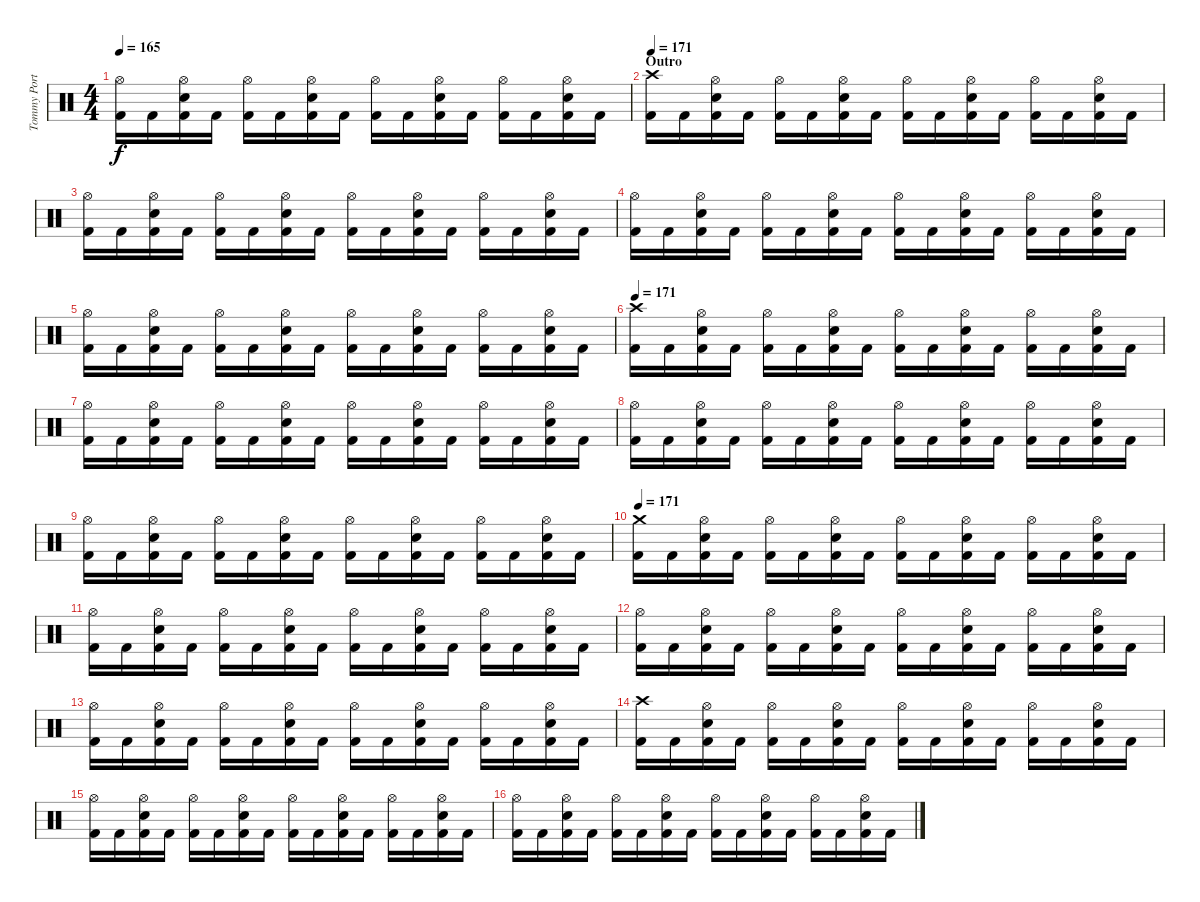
\track ("Tommy Portimo" "Tommy Port") {instrument percussion}
\staff {score}
\articulation defaults
\ts (4 4)
\tempo 165
\clef neutral
\ks c
("Hi-Hat (open)" "Kick (hit) 2").16{dy f} "Kick (hit) 2".16 ("Hi-Hat (open)" "Snare (hit) 2" "Kick (hit) 2").16 "Kick (hit) 2".16 ("Hi-Hat (open)" "Kick (hit) 2").16 "Kick (hit) 2".16 ("Hi-Hat (open)" "Snare (hit) 2" "Kick (hit) 2").16 "Kick (hit) 2".16 ("Hi-Hat (open)" "Kick (hit) 2").16 "Kick (hit) 2".16 ("Hi-Hat (open)" "Snare (hit) 2" "Kick (hit) 2").16 "Kick (hit) 2".16 ("Hi-Hat (open)" "Kick (hit) 2").16 "Kick (hit) 2".16 ("Hi-Hat (open)" "Snare (hit) 2" "Kick (hit) 2").16 "Kick (hit) 2".16 |
\section ("" "Outro")
\tempo 171
("Crash high (hit)" "Kick (hit) 2").16 "Kick (hit) 2".16 ("Hi-Hat (open)" "Snare (hit) 2" "Kick (hit) 2").16 "Kick (hit) 2".16 ("Hi-Hat (open)" "Kick (hit) 2").16 "Kick (hit) 2".16 ("Hi-Hat (open)" "Snare (hit) 2" "Kick (hit) 2").16 "Kick (hit) 2".16 ("Hi-Hat (open)" "Kick (hit) 2").16 "Kick (hit) 2".16 ("Hi-Hat (open)" "Snare (hit) 2" "Kick (hit) 2").16 "Kick (hit) 2".16 ("Hi-Hat (open)" "Kick (hit) 2").16 "Kick (hit) 2".16 ("Hi-Hat (open)" "Snare (hit) 2" "Kick (hit) 2").16 "Kick (hit) 2".16 |
("Hi-Hat (open)" "Kick (hit) 2").16 "Kick (hit) 2".16 ("Hi-Hat (open)" "Snare (hit) 2" "Kick (hit) 2").16 "Kick (hit) 2".16 ("Hi-Hat (open)" "Kick (hit) 2").16 "Kick (hit) 2".16 ("Hi-Hat (open)" "Snare (hit) 2" "Kick (hit) 2").16 "Kick (hit) 2".16 ("Hi-Hat (open)" "Kick (hit) 2").16 "Kick (hit) 2".16 ("Hi-Hat (open)" "Snare (hit) 2" "Kick (hit) 2").16 "Kick (hit) 2".16 ("Hi-Hat (open)" "Kick (hit) 2").16 "Kick (hit) 2".16 ("Hi-Hat (open)" "Snare (hit) 2" "Kick (hit) 2").16 "Kick (hit) 2".16 |
("Hi-Hat (open)" "Kick (hit) 2").16 "Kick (hit) 2".16 ("Hi-Hat (open)" "Snare (hit) 2" "Kick (hit) 2").16 "Kick (hit) 2".16 ("Hi-Hat (open)" "Kick (hit) 2").16 "Kick (hit) 2".16 ("Hi-Hat (open)" "Snare (hit) 2" "Kick (hit) 2").16 "Kick (hit) 2".16 ("Hi-Hat (open)" "Kick (hit) 2").16 "Kick (hit) 2".16 ("Hi-Hat (open)" "Snare (hit) 2" "Kick (hit) 2").16 "Kick (hit) 2".16 ("Hi-Hat (open)" "Kick (hit) 2").16 "Kick (hit) 2".16 ("Hi-Hat (open)" "Snare (hit) 2" "Kick (hit) 2").16 "Kick (hit) 2".16 |
("Hi-Hat (open)" "Kick (hit) 2").16 "Kick (hit) 2".16 ("Hi-Hat (open)" "Snare (hit) 2" "Kick (hit) 2").16 "Kick (hit) 2".16 ("Hi-Hat (open)" "Kick (hit) 2").16 "Kick (hit) 2".16 ("Hi-Hat (open)" "Snare (hit) 2" "Kick (hit) 2").16 "Kick (hit) 2".16 ("Hi-Hat (open)" "Kick (hit) 2").16 "Kick (hit) 2".16 ("Hi-Hat (open)" "Snare (hit) 2" "Kick (hit) 2").16 "Kick (hit) 2".16 ("Hi-Hat (open)" "Kick (hit) 2").16 "Kick (hit) 2".16 ("Hi-Hat (open)" "Snare (hit) 2" "Kick (hit) 2").16 "Kick (hit) 2".16 |
\tempo 171
("Crash high (hit)" "Kick (hit) 2").16 "Kick (hit) 2".16 ("Hi-Hat (open)" "Snare (hit) 2" "Kick (hit) 2").16 "Kick (hit) 2".16 ("Hi-Hat (open)" "Kick (hit) 2").16 "Kick (hit) 2".16 ("Hi-Hat (open)" "Snare (hit) 2" "Kick (hit) 2").16 "Kick (hit) 2".16 ("Hi-Hat (open)" "Kick (hit) 2").16 "Kick (hit) 2".16 ("Hi-Hat (open)" "Snare (hit) 2" "Kick (hit) 2").16 "Kick (hit) 2".16 ("Hi-Hat (open)" "Kick (hit) 2").16 "Kick (hit) 2".16 ("Hi-Hat (open)" "Snare (hit) 2" "Kick (hit) 2").16 "Kick (hit) 2".16 |
("Hi-Hat (open)" "Kick (hit) 2").16 "Kick (hit) 2".16 ("Hi-Hat (open)" "Snare (hit) 2" "Kick (hit) 2").16 "Kick (hit) 2".16 ("Hi-Hat (open)" "Kick (hit) 2").16 "Kick (hit) 2".16 ("Hi-Hat (open)" "Snare (hit) 2" "Kick (hit) 2").16 "Kick (hit) 2".16 ("Hi-Hat (open)" "Kick (hit) 2").16 "Kick (hit) 2".16 ("Hi-Hat (open)" "Snare (hit) 2" "Kick (hit) 2").16 "Kick (hit) 2".16 ("Hi-Hat (open)" "Kick (hit) 2").16 "Kick (hit) 2".16 ("Hi-Hat (open)" "Snare (hit) 2" "Kick (hit) 2").16 "Kick (hit) 2".16 |
("Hi-Hat (open)" "Kick (hit) 2").16 "Kick (hit) 2".16 ("Hi-Hat (open)" "Snare (hit) 2" "Kick (hit) 2").16 "Kick (hit) 2".16 ("Hi-Hat (open)" "Kick (hit) 2").16 "Kick (hit) 2".16 ("Hi-Hat (open)" "Snare (hit) 2" "Kick (hit) 2").16 "Kick (hit) 2".16 ("Hi-Hat (open)" "Kick (hit) 2").16 "Kick (hit) 2".16 ("Hi-Hat (open)" "Snare (hit) 2" "Kick (hit) 2").16 "Kick (hit) 2".16 ("Hi-Hat (open)" "Kick (hit) 2").16 "Kick (hit) 2".16 ("Hi-Hat (open)" "Snare (hit) 2" "Kick (hit) 2").16 "Kick (hit) 2".16 |
("Hi-Hat (open)" "Kick (hit) 2").16 "Kick (hit) 2".16 ("Hi-Hat (open)" "Snare (hit) 2" "Kick (hit) 2").16 "Kick (hit) 2".16 ("Hi-Hat (open)" "Kick (hit) 2").16 "Kick (hit) 2".16 ("Hi-Hat (open)" "Snare (hit) 2" "Kick (hit) 2").16 "Kick (hit) 2".16 ("Hi-Hat (open)" "Kick (hit) 2").16 "Kick (hit) 2".16 ("Hi-Hat (open)" "Snare (hit) 2" "Kick (hit) 2").16 "Kick (hit) 2".16 ("Hi-Hat (open)" "Kick (hit) 2").16 "Kick (hit) 2".16 ("Hi-Hat (open)" "Snare (hit) 2" "Kick (hit) 2").16 "Kick (hit) 2".16 |
\tempo 171
("Crash medium (hit)" "Kick (hit) 2").16 "Kick (hit) 2".16 ("Hi-Hat (open)" "Snare (hit) 2" "Kick (hit) 2").16 "Kick (hit) 2".16 ("Hi-Hat (open)" "Kick (hit) 2").16 "Kick (hit) 2".16 ("Hi-Hat (open)" "Snare (hit) 2" "Kick (hit) 2").16 "Kick (hit) 2".16 ("Hi-Hat (open)" "Kick (hit) 2").16 "Kick (hit) 2".16 ("Hi-Hat (open)" "Snare (hit) 2" "Kick (hit) 2").16 "Kick (hit) 2".16 ("Hi-Hat (open)" "Kick (hit) 2").16 "Kick (hit) 2".16 ("Hi-Hat (open)" "Snare (hit) 2" "Kick (hit) 2").16 "Kick (hit) 2".16 |
("Hi-Hat (open)" "Kick (hit) 2").16 "Kick (hit) 2".16 ("Hi-Hat (open)" "Snare (hit) 2" "Kick (hit) 2").16 "Kick (hit) 2".16 ("Hi-Hat (open)" "Kick (hit) 2").16 "Kick (hit) 2".16 ("Hi-Hat (open)" "Snare (hit) 2" "Kick (hit) 2").16 "Kick (hit) 2".16 ("Hi-Hat (open)" "Kick (hit) 2").16 "Kick (hit) 2".16 ("Hi-Hat (open)" "Snare (hit) 2" "Kick (hit) 2").16 "Kick (hit) 2".16 ("Hi-Hat (open)" "Kick (hit) 2").16 "Kick (hit) 2".16 ("Hi-Hat (open)" "Snare (hit) 2" "Kick (hit) 2").16 "Kick (hit) 2".16 |
("Hi-Hat (open)" "Kick (hit) 2").16 "Kick (hit) 2".16 ("Hi-Hat (open)" "Snare (hit) 2" "Kick (hit) 2").16 "Kick (hit) 2".16 ("Hi-Hat (open)" "Kick (hit) 2").16 "Kick (hit) 2".16 ("Hi-Hat (open)" "Snare (hit) 2" "Kick (hit) 2").16 "Kick (hit) 2".16 ("Hi-Hat (open)" "Kick (hit) 2").16 "Kick (hit) 2".16 ("Hi-Hat (open)" "Snare (hit) 2" "Kick (hit) 2").16 "Kick (hit) 2".16 ("Hi-Hat (open)" "Kick (hit) 2").16 "Kick (hit) 2".16 ("Hi-Hat (open)" "Snare (hit) 2" "Kick (hit) 2").16 "Kick (hit) 2".16 |
("Hi-Hat (open)" "Kick (hit) 2").16 "Kick (hit) 2".16 ("Hi-Hat (open)" "Snare (hit) 2" "Kick (hit) 2").16 "Kick (hit) 2".16 ("Hi-Hat (open)" "Kick (hit) 2").16 "Kick (hit) 2".16 ("Hi-Hat (open)" "Snare (hit) 2" "Kick (hit) 2").16 "Kick (hit) 2".16 ("Hi-Hat (open)" "Kick (hit) 2").16 "Kick (hit) 2".16 ("Hi-Hat (open)" "Snare (hit) 2" "Kick (hit) 2").16 "Kick (hit) 2".16 ("Hi-Hat (open)" "Kick (hit) 2").16 "Kick (hit) 2".16 ("Hi-Hat (open)" "Snare (hit) 2" "Kick (hit) 2").16 "Kick (hit) 2".16 |
("Crash high (hit)" "Kick (hit) 2").16 "Kick (hit) 2".16 ("Hi-Hat (open)" "Snare (hit) 2" "Kick (hit) 2").16 "Kick (hit) 2".16 ("Hi-Hat (open)" "Kick (hit) 2").16 "Kick (hit) 2".16 ("Hi-Hat (open)" "Snare (hit) 2" "Kick (hit) 2").16 "Kick (hit) 2".16 ("Hi-Hat (open)" "Kick (hit) 2").16 "Kick (hit) 2".16 ("Hi-Hat (open)" "Snare (hit) 2" "Kick (hit) 2").16 "Kick (hit) 2".16 ("Hi-Hat (open)" "Kick (hit) 2").16 "Kick (hit) 2".16 ("Hi-Hat (open)" "Snare (hit) 2" "Kick (hit) 2").16 "Kick (hit) 2".16 |
("Hi-Hat (open)" "Kick (hit) 2").16 "Kick (hit) 2".16 ("Hi-Hat (open)" "Snare (hit) 2" "Kick (hit) 2").16 "Kick (hit) 2".16 ("Hi-Hat (open)" "Kick (hit) 2").16 "Kick (hit) 2".16 ("Hi-Hat (open)" "Snare (hit) 2" "Kick (hit) 2").16 "Kick (hit) 2".16 ("Hi-Hat (open)" "Kick (hit) 2").16 "Kick (hit) 2".16 ("Hi-Hat (open)" "Snare (hit) 2" "Kick (hit) 2").16 "Kick (hit) 2".16 ("Hi-Hat (open)" "Kick (hit) 2").16 "Kick (hit) 2".16 ("Hi-Hat (open)" "Snare (hit) 2" "Kick (hit) 2").16 "Kick (hit) 2".16 |
("Hi-Hat (open)" "Kick (hit) 2").16 "Kick (hit) 2".16 ("Hi-Hat (open)" "Snare (hit) 2" "Kick (hit) 2").16 "Kick (hit) 2".16 ("Hi-Hat (open)" "Kick (hit) 2").16 "Kick (hit) 2".16 ("Hi-Hat (open)" "Snare (hit) 2" "Kick (hit) 2").16 "Kick (hit) 2".16 ("Hi-Hat (open)" "Kick (hit) 2").16 "Kick (hit) 2".16 ("Hi-Hat (open)" "Snare (hit) 2" "Kick (hit) 2").16 "Kick (hit) 2".16 ("Hi-Hat (open)" "Kick (hit) 2").16 "Kick (hit) 2".16 ("Hi-Hat (open)" "Snare (hit) 2" "Kick (hit) 2").16 "Kick (hit) 2".16
